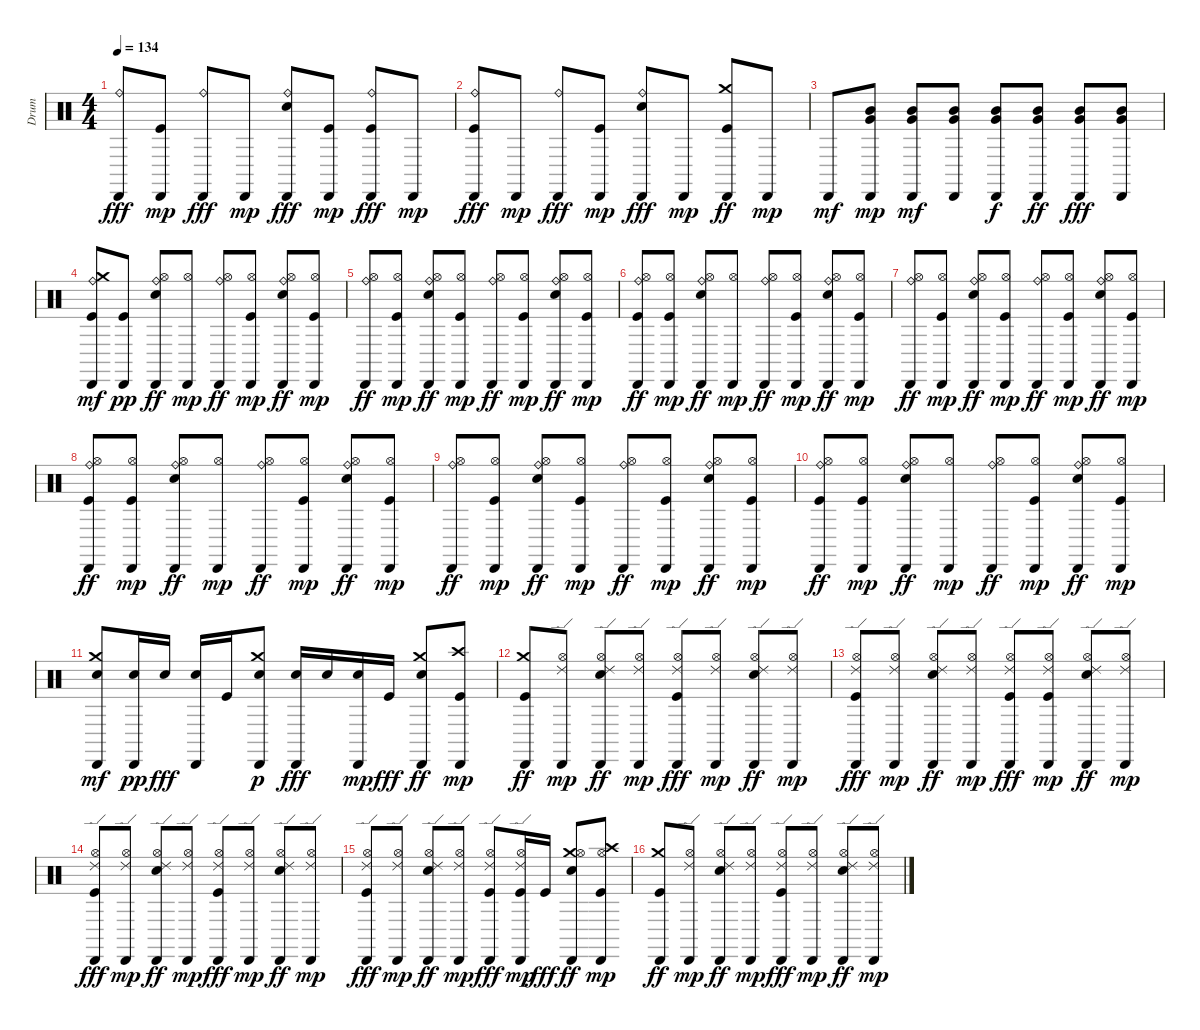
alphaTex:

\track ("Drum" "Drum") {instrument percussion}
\staff {score}
\articulation defaults
\ts (4 4)
\tempo 134
\clef neutral
\ks c
("Ride (bell)" "Cabasa (hit)").8{dy fff} ("Kick (hit)" "Cabasa (hit)").8{dy mp} ("Ride (bell)" "Cabasa (hit)").8{dy fff} "Cabasa (hit)".8{dy mp} ("Electric Snare (hit)" "Ride (bell)" "Cabasa (hit)").8{dy fff} ("Kick (hit)" "Cabasa (hit)").8{dy mp} ("Cabasa (hit)" "Kick (hit)" "Ride (bell)").8{dy fff} "Cabasa (hit)".8{dy mp} |
("Kick (hit)" "Ride (bell)" "Cabasa (hit)").8{dy fff} "Cabasa (hit)".8{dy mp} ("Ride (bell)" "Cabasa (hit)").8{dy fff} ("Kick (hit)" "Cabasa (hit)").8{dy mp} ("Electric Snare (hit)" "Ride (bell)" "Cabasa (hit)").8{dy fff} "Cabasa (hit)".8{dy mp} ("Kick (hit)" "Crash medium (hit)" "Cabasa (hit)").8{dy ff} "Cabasa (hit)".8{dy mp} |
"Cabasa (hit)".8{dy mf} ("Cabasa (hit)" "Mid Tom (hit)" "Very Low Tom (hit)").8{dy mp} ("Cabasa (hit)" "Mid Tom (hit)" "Very Low Tom (hit)").8{dy mf} ("Cabasa (hit)" "Mid Tom (hit)" "Very Low Tom (hit)").8 ("Cabasa (hit)" "Mid Tom (hit)" "Very Low Tom (hit)").8{dy f} ("Cabasa (hit)" "Mid Tom (hit)" "Very Low Tom (hit)").8{dy ff} ("Cabasa (hit)" "Mid Tom (hit)" "Very Low Tom (hit)").8{dy fff} ("Cabasa (hit)" "Mid Tom (hit)" "Very Low Tom (hit)").8 |
("Kick (hit)" "Crash medium (hit)" "Ride (bell)" "Cabasa (hit)").8{dy mf} ("Kick (hit)" "Cabasa (hit)").8{dy pp} ("Electric Snare (hit)" "Ride (bell)" "Cabasa (hit)" "Hi-Hat (open)").8{dy ff} ("Cabasa (hit)" "Hi-Hat (open)").8{dy mp} ("Ride (bell)" "Cabasa (hit)" "Hi-Hat (open)").8{dy ff} ("Kick (hit)" "Cabasa (hit)" "Hi-Hat (open)").8{dy mp} ("Electric Snare (hit)" "Ride (bell)" "Cabasa (hit)" "Hi-Hat (open)").8{dy ff} ("Kick (hit)" "Cabasa (hit)" "Hi-Hat (open)").8{dy mp} |
("Cabasa (hit)" "Hi-Hat (open)" "Ride (bell)").8{dy ff} ("Kick (hit)" "Cabasa (hit)" "Hi-Hat (open)").8{dy mp} ("Electric Snare (hit)" "Cabasa (hit)" "Hi-Hat (open)" "Ride (bell)").8{dy ff} ("Kick (hit)" "Cabasa (hit)" "Hi-Hat (open)").8{dy mp} ("Cabasa (hit)" "Hi-Hat (open)" "Ride (bell)").8{dy ff} ("Kick (hit)" "Cabasa (hit)" "Hi-Hat (open)").8{dy mp} ("Electric Snare (hit)" "Cabasa (hit)" "Hi-Hat (open)" "Ride (bell)").8{dy ff} ("Kick (hit)" "Cabasa (hit)" "Hi-Hat (open)").8{dy mp} |
("Kick (hit)" "Cabasa (hit)" "Hi-Hat (open)" "Ride (bell)").8{dy ff} ("Kick (hit)" "Cabasa (hit)" "Hi-Hat (open)").8{dy mp} ("Electric Snare (hit)" "Cabasa (hit)" "Hi-Hat (open)" "Ride (bell)").8{dy ff} ("Cabasa (hit)" "Hi-Hat (open)").8{dy mp} ("Cabasa (hit)" "Hi-Hat (open)" "Ride (bell)").8{dy ff} ("Kick (hit)" "Cabasa (hit)" "Hi-Hat (open)").8{dy mp} ("Electric Snare (hit)" "Cabasa (hit)" "Hi-Hat (open)" "Ride (bell)").8{dy ff} ("Kick (hit)" "Cabasa (hit)" "Hi-Hat (open)").8{dy mp} |
("Cabasa (hit)" "Hi-Hat (open)" "Ride (bell)").8{dy ff} ("Kick (hit)" "Cabasa (hit)" "Hi-Hat (open)").8{dy mp} ("Electric Snare (hit)" "Cabasa (hit)" "Hi-Hat (open)" "Ride (bell)").8{dy ff} ("Kick (hit)" "Cabasa (hit)" "Hi-Hat (open)").8{dy mp} ("Cabasa (hit)" "Hi-Hat (open)" "Ride (bell)").8{dy ff} ("Kick (hit)" "Cabasa (hit)" "Hi-Hat (open)").8{dy mp} ("Electric Snare (hit)" "Cabasa (hit)" "Hi-Hat (open)" "Ride (bell)").8{dy ff} ("Kick (hit)" "Cabasa (hit)" "Hi-Hat (open)").8{dy mp} |
("Kick (hit)" "Cabasa (hit)" "Hi-Hat (open)" "Ride (bell)").8{dy ff} ("Kick (hit)" "Cabasa (hit)" "Hi-Hat (open)").8{dy mp} ("Electric Snare (hit)" "Cabasa (hit)" "Hi-Hat (open)" "Ride (bell)").8{dy ff} ("Cabasa (hit)" "Hi-Hat (open)").8{dy mp} ("Cabasa (hit)" "Hi-Hat (open)" "Ride (bell)").8{dy ff} ("Kick (hit)" "Cabasa (hit)" "Hi-Hat (open)").8{dy mp} ("Electric Snare (hit)" "Cabasa (hit)" "Hi-Hat (open)" "Ride (bell)").8{dy ff} ("Kick (hit)" "Cabasa (hit)" "Hi-Hat (open)").8{dy mp} |
("Cabasa (hit)" "Hi-Hat (open)" "Ride (bell)").8{dy ff} ("Kick (hit)" "Cabasa (hit)" "Hi-Hat (open)").8{dy mp} ("Electric Snare (hit)" "Cabasa (hit)" "Hi-Hat (open)" "Ride (bell)").8{dy ff} ("Kick (hit)" "Cabasa (hit)" "Hi-Hat (open)").8{dy mp} ("Cabasa (hit)" "Hi-Hat (open)" "Ride (bell)").8{dy ff} ("Kick (hit)" "Cabasa (hit)" "Hi-Hat (open)").8{dy mp} ("Electric Snare (hit)" "Cabasa (hit)" "Hi-Hat (open)" "Ride (bell)").8{dy ff} ("Kick (hit)" "Cabasa (hit)" "Hi-Hat (open)").8{dy mp} |
("Kick (hit)" "Cabasa (hit)" "Hi-Hat (open)" "Ride (bell)").8{dy ff} ("Kick (hit)" "Cabasa (hit)" "Hi-Hat (open)").8{dy mp} ("Electric Snare (hit)" "Cabasa (hit)" "Hi-Hat (open)" "Ride (bell)").8{dy ff} ("Cabasa (hit)" "Hi-Hat (open)").8{dy mp} ("Cabasa (hit)" "Hi-Hat (open)" "Ride (bell)").8{dy ff} ("Kick (hit)" "Cabasa (hit)" "Hi-Hat (open)").8{dy mp} ("Electric Snare (hit)" "Cabasa (hit)" "Hi-Hat (open)" "Ride (bell)").8{dy ff} ("Kick (hit)" "Cabasa (hit)" "Hi-Hat (open)").8{dy mp} |
("Crash medium (hit)" "Electric Snare (hit)" "Cabasa (hit)").8{dy mf} ("Electric Snare (hit)" "Cabasa (hit)").16{dy pp} "Electric Snare (hit)".16{dy fff} ("Electric Snare (hit)" "Cabasa (hit)").16 "Kick (hit)".16 ("Crash medium (hit)" "Electric Snare (hit)" "Cabasa (hit)").8{dy p} ("Electric Snare (hit)" "Cabasa (hit)").16{dy fff} "Electric Snare (hit)".16 ("Electric Snare (hit)" "Cabasa (hit)").16{dy mp} "Kick (hit)".16{dy fff} ("Crash medium (hit)" "Electric Snare (hit)" "Cabasa (hit)").8{dy ff} ("Crash high (hit)" "Kick (hit)" "Cabasa (hit)").8{dy mp} |
("Cabasa (hit)" "Kick (hit)" "Crash medium (hit)").8{dy ff} ("Cabasa (hit)" "Ride (edge) 2" "Hi-Hat (open)").8{dy mp} ("Electric Snare (hit)" "Cabasa (hit)" "Ride (edge) 2" "Hi-Hat (open)").8{dy ff} ("Cabasa (hit)" "Ride (edge) 2" "Hi-Hat (open)").8{dy mp} ("Cabasa (hit)" "Ride (edge) 2" "Kick (hit)" "Hi-Hat (open)").8{dy fff} ("Cabasa (hit)" "Ride (edge) 2" "Hi-Hat (open)").8{dy mp} ("Electric Snare (hit)" "Cabasa (hit)" "Ride (edge) 2" "Hi-Hat (open)").8{dy ff} ("Cabasa (hit)" "Ride (edge) 2" "Hi-Hat (open)").8{dy mp} |
("Cabasa (hit)" "Ride (edge) 2" "Kick (hit)" "Hi-Hat (open)").8{dy fff} ("Cabasa (hit)" "Ride (edge) 2" "Hi-Hat (open)").8{dy mp} ("Cabasa (hit)" "Electric Snare (hit)" "Ride (edge) 2" "Hi-Hat (open)").8{dy ff} ("Cabasa (hit)" "Ride (edge) 2" "Hi-Hat (open)").8{dy mp} ("Cabasa (hit)" "Ride (edge) 2" "Kick (hit)" "Hi-Hat (open)").8{dy fff} ("Cabasa (hit)" "Kick (hit)" "Ride (edge) 2" "Hi-Hat (open)").8{dy mp} ("Cabasa (hit)" "Electric Snare (hit)" "Ride (edge) 2" "Hi-Hat (open)").8{dy ff} ("Cabasa (hit)" "Ride (edge) 2" "Hi-Hat (open)").8{dy mp} |
("Cabasa (hit)" "Ride (edge) 2" "Kick (hit)" "Hi-Hat (open)").8{dy fff} ("Cabasa (hit)" "Ride (edge) 2" "Hi-Hat (open)").8{dy mp} ("Cabasa (hit)" "Electric Snare (hit)" "Ride (edge) 2" "Hi-Hat (open)").8{dy ff} ("Cabasa (hit)" "Ride (edge) 2" "Hi-Hat (open)").8{dy mp} ("Cabasa (hit)" "Ride (edge) 2" "Kick (hit)" "Hi-Hat (open)").8{dy fff} ("Cabasa (hit)" "Ride (edge) 2" "Hi-Hat (open)").8{dy mp} ("Cabasa (hit)" "Electric Snare (hit)" "Ride (edge) 2" "Hi-Hat (open)").8{dy ff} ("Cabasa (hit)" "Ride (edge) 2" "Hi-Hat (open)").8{dy mp} |
("Ride (edge) 2" "Kick (hit)" "Hi-Hat (open)" "Cabasa (hit)").8{dy fff} ("Cabasa (hit)" "Ride (edge) 2" "Hi-Hat (open)").8{dy mp} ("Electric Snare (hit)" "Cabasa (hit)" "Ride (edge) 2" "Hi-Hat (open)").8{dy ff} ("Cabasa (hit)" "Ride (edge) 2" "Hi-Hat (open)").8{dy mp} ("Cabasa (hit)" "Ride (edge) 2" "Kick (hit)" "Hi-Hat (open)").8{dy fff} ("Cabasa (hit)" "Kick (hit)" "Ride (edge) 2" "Hi-Hat (open)").16{dy mp} "Kick (hit)".16{dy fff} ("Cabasa (hit)" "Electric Snare (hit)" "Crash medium (hit)" "Hi-Hat (open)").8{dy ff} ("Cabasa (hit)" "Kick (hit)" "Crash high (hit)" "Hi-Hat (open)").8{dy mp} |
("Kick (hit)" "Crash medium (hit)" "Cabasa (hit)").8{dy ff} ("Cabasa (hit)" "Ride (edge) 2" "Hi-Hat (open)").8{dy mp} ("Electric Snare (hit)" "Cabasa (hit)" "Ride (edge) 2" "Hi-Hat (open)").8{dy ff} ("Cabasa (hit)" "Ride (edge) 2" "Hi-Hat (open)").8{dy mp} ("Cabasa (hit)" "Ride (edge) 2" "Kick (hit)" "Hi-Hat (open)").8{dy fff} ("Cabasa (hit)" "Ride (edge) 2" "Hi-Hat (open)").8{dy mp} ("Cabasa (hit)" "Electric Snare (hit)" "Ride (edge) 2" "Hi-Hat (open)").8{dy ff} ("Cabasa (hit)" "Ride (edge) 2" "Hi-Hat (open)").8{dy mp}
